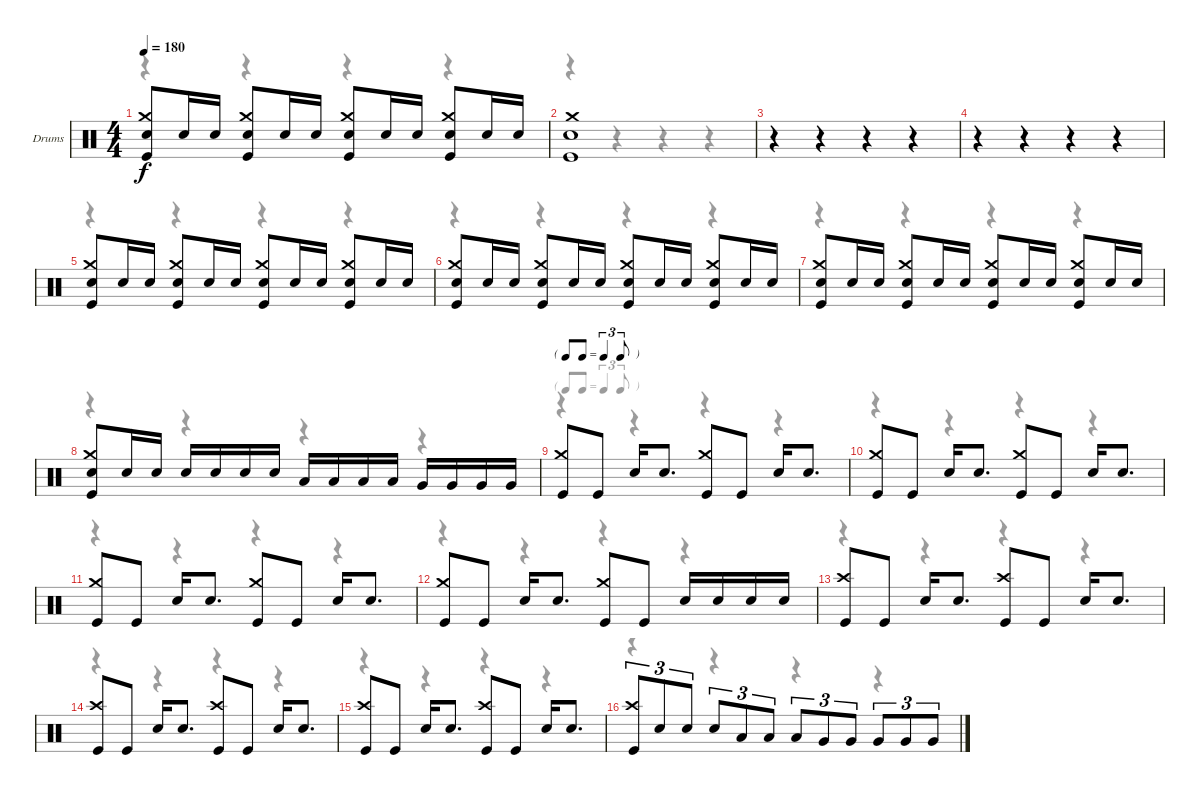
\bracketExtendMode groupsimilarinstruments
\firstSystemTrackNameOrientation horizontal
\otherSystemsTrackNameOrientation horizontal
\track ("Drumkit" "Drums") {instrument percussion}
\staff {score}
\articulation defaults
\voice
\ts (4 4)
\tempo 180
\clef neutral
\ks c
("Crash medium (hit)" "Snare (hit) 2" "Kick (hit)").8{dy f} "Snare (hit) 2".16 "Snare (hit) 2".16 ("Crash medium (hit)" "Snare (hit) 2" "Kick (hit)").8 "Snare (hit) 2".16 "Snare (hit) 2".16 ("Crash medium (hit)" "Snare (hit) 2" "Kick (hit)").8 "Snare (hit) 2".16 "Snare (hit) 2".16 ("Crash medium (hit)" "Snare (hit) 2" "Kick (hit)").8 "Snare (hit) 2".16 "Snare (hit) 2".16 |
("Crash medium (hit)" "Snare (hit) 2" "Kick (hit)").1 |
r.4 r.4 r.4 r.4 |
r.4 r.4 r.4 r.4 |
("Crash medium (hit)" "Snare (hit) 2" "Kick (hit)").8 "Snare (hit) 2".16 "Snare (hit) 2".16 ("Crash medium (hit)" "Snare (hit) 2" "Kick (hit)").8 "Snare (hit) 2".16 "Snare (hit) 2".16 ("Crash medium (hit)" "Snare (hit) 2" "Kick (hit)").8 "Snare (hit) 2".16 "Snare (hit) 2".16 ("Crash medium (hit)" "Snare (hit) 2" "Kick (hit)").8 "Snare (hit) 2".16 "Snare (hit) 2".16 |
("Crash medium (hit)" "Snare (hit) 2" "Kick (hit)").8 "Snare (hit) 2".16 "Snare (hit) 2".16 ("Crash medium (hit)" "Snare (hit) 2" "Kick (hit)").8 "Snare (hit) 2".16 "Snare (hit) 2".16 ("Crash medium (hit)" "Snare (hit) 2" "Kick (hit)").8 "Snare (hit) 2".16 "Snare (hit) 2".16 ("Crash medium (hit)" "Snare (hit) 2" "Kick (hit)").8 "Snare (hit) 2".16 "Snare (hit) 2".16 |
("Crash medium (hit)" "Snare (hit) 2" "Kick (hit)").8 "Snare (hit) 2".16 "Snare (hit) 2".16 ("Crash medium (hit)" "Snare (hit) 2" "Kick (hit)").8 "Snare (hit) 2".16 "Snare (hit) 2".16 ("Crash medium (hit)" "Snare (hit) 2" "Kick (hit)").8 "Snare (hit) 2".16 "Snare (hit) 2".16 ("Crash medium (hit)" "Snare (hit) 2" "Kick (hit)").8 "Snare (hit) 2".16 "Snare (hit) 2".16 |
("Crash medium (hit)" "Snare (hit) 2" "Kick (hit)").8 "Snare (hit) 2".16 "Snare (hit) 2".16 "Snare (hit) 2".16 "Snare (hit) 2".16 "Snare (hit) 2".16 "Snare (hit) 2".16 "Low Tom (hit)".16 "Low Tom (hit)".16 "Low Tom (hit)".16 "Low Tom (hit)".16 "Very Low Tom (hit)".16 "Very Low Tom (hit)".16 "Very Low Tom (hit)".16 "Very Low Tom (hit)".16 |
\tf triplet8th
("Crash medium (hit)" "Kick (hit)").8 "Kick (hit)".8 "Snare (hit) 2".16 "Snare (hit) 2".8{d} ("Crash medium (hit)" "Kick (hit)").8 "Kick (hit)".8 "Snare (hit) 2".16 "Snare (hit) 2".8{d} |
("Crash medium (hit)" "Kick (hit)").8 "Kick (hit)".8 "Snare (hit) 2".16 "Snare (hit) 2".8{d} ("Crash medium (hit)" "Kick (hit)").8 "Kick (hit)".8 "Snare (hit) 2".16 "Snare (hit) 2".8{d} |
("Crash medium (hit)" "Kick (hit)").8 "Kick (hit)".8 "Snare (hit) 2".16 "Snare (hit) 2".8{d} ("Crash medium (hit)" "Kick (hit)").8 "Kick (hit)".8 "Snare (hit) 2".16 "Snare (hit) 2".8{d} |
("Crash medium (hit)" "Kick (hit)").8 "Kick (hit)".8 "Snare (hit) 2".16 "Snare (hit) 2".8{d} ("Crash medium (hit)" "Kick (hit)").8 "Kick (hit)".8 "Snare (hit) 2".16 "Snare (hit) 2".16 "Snare (hit) 2".16 "Snare (hit) 2".16 |
("Crash high (hit)" "Kick (hit)").8 "Kick (hit)".8 "Snare (hit) 2".16 "Snare (hit) 2".8{d} ("Crash high (hit)" "Kick (hit)").8 "Kick (hit)".8 "Snare (hit) 2".16 "Snare (hit) 2".8{d} |
("Crash high (hit)" "Kick (hit)").8 "Kick (hit)".8 "Snare (hit) 2".16 "Snare (hit) 2".8{d} ("Crash high (hit)" "Kick (hit)").8 "Kick (hit)".8 "Snare (hit) 2".16 "Snare (hit) 2".8{d} |
("Crash high (hit)" "Kick (hit)").8 "Kick (hit)".8 "Snare (hit) 2".16 "Snare (hit) 2".8{d} ("Crash high (hit)" "Kick (hit)").8 "Kick (hit)".8 "Snare (hit) 2".16 "Snare (hit) 2".8{d} |
("Crash high (hit)" "Kick (hit)").8{tu (3 2)} "Snare (hit) 2".8{tu (3 2)} "Snare (hit) 2".8{tu (3 2)} "Snare (hit) 2".8{tu (3 2)} "Low Tom (hit)".8{tu (3 2)} "Low Tom (hit)".8{tu (3 2)} "Low Tom (hit)".8{tu (3 2)} "Very Low Tom (hit)".8{tu (3 2)} "Very Low Tom (hit)".8{tu (3 2)} "Very Low Tom (hit)".8{tu (3 2)} "Very Low Tom (hit)".8{tu (3 2)} "Very Low Tom (hit)".8{tu (3 2)}
\voice
\clef neutral
\ottava regular
\simile none
\ks c
r.4{dy mf} r.4 r.4 r.4 |
r.4 r.4 r.4 r.4 |
r.4 r.4 r.4 r.4 |
r.4 r.4 r.4 r.4 |
r.4 r.4 r.4 r.4 |
r.4 r.4 r.4 r.4 |
r.4 r.4 r.4 r.4 |
r.4 r.4 r.4 r.4 |
r.4 r.4 r.4 r.4 |
r.4 r.4 r.4 r.4 |
r.4 r.4 r.4 r.4 |
r.4 r.4 r.4 r.4 |
r.4 r.4 r.4 r.4 |
r.4 r.4 r.4 r.4 |
r.4 r.4 r.4 r.4 |
r.4 r.4 r.4 r.4
